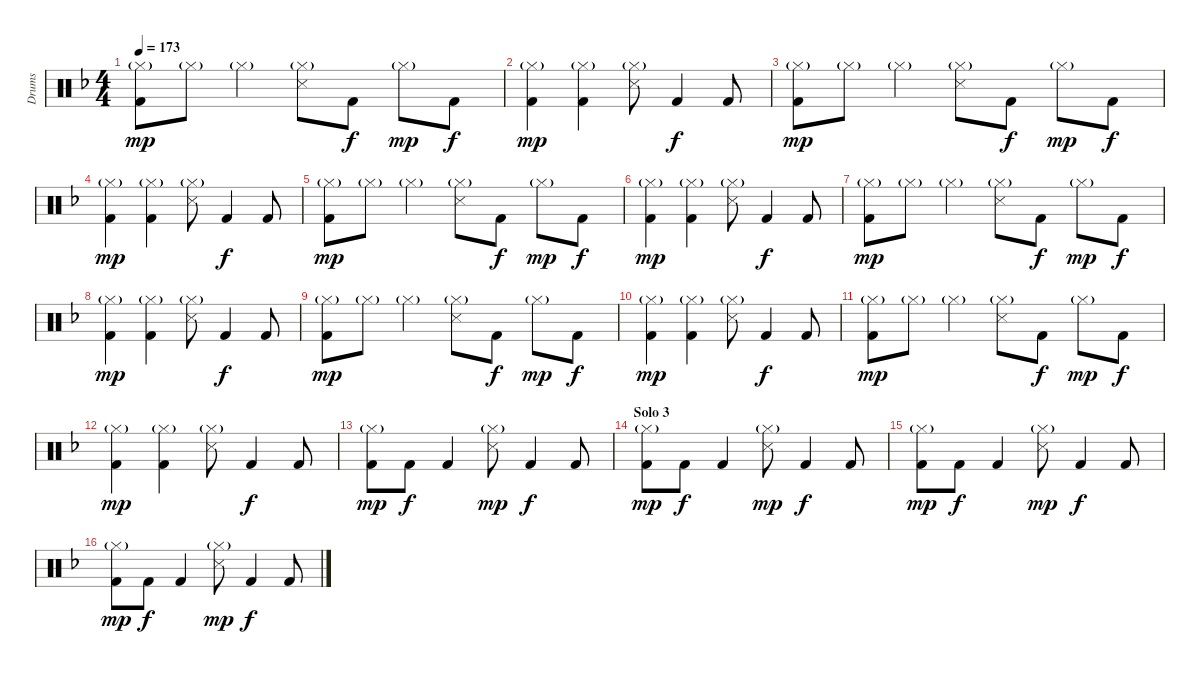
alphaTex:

\track ("Drums" "Drums") {instrument percussion}
\staff {score}
\articulation defaults
\ts (4 4)
\tempo 173
\clef neutral
\ks dminor
("Hi-Hat (closed)"{g} "Kick (hit) 2").8{dy mp} "Hi-Hat (closed)"{g}.8 "Hi-Hat (closed)"{g}.4 ("Hi-Hat (closed)"{g} "Snare (side stick) 3").8 "Kick (hit) 2".8{dy f} "Hi-Hat (closed)"{g}.8{dy mp} "Kick (hit) 2".8{dy f} |
("Hi-Hat (closed)"{g} "Kick (hit) 2").4{dy mp} ("Hi-Hat (closed)"{g} "Kick (hit) 2").4 ("Hi-Hat (closed)"{g} "Snare (side stick) 3").8 "Kick (hit) 2".4{dy f} "Kick (hit) 2".8 |
("Hi-Hat (closed)"{g} "Kick (hit) 2").8{dy mp} "Hi-Hat (closed)"{g}.8 "Hi-Hat (closed)"{g}.4 ("Hi-Hat (closed)"{g} "Snare (side stick) 3").8 "Kick (hit) 2".8{dy f} "Hi-Hat (closed)"{g}.8{dy mp} "Kick (hit) 2".8{dy f} |
("Hi-Hat (closed)"{g} "Kick (hit) 2").4{dy mp} ("Hi-Hat (closed)"{g} "Kick (hit) 2").4 ("Hi-Hat (closed)"{g} "Snare (side stick) 3").8 "Kick (hit) 2".4{dy f} "Kick (hit) 2".8 |
("Hi-Hat (closed)"{g} "Kick (hit) 2").8{dy mp} "Hi-Hat (closed)"{g}.8 "Hi-Hat (closed)"{g}.4 ("Hi-Hat (closed)"{g} "Snare (side stick) 3").8 "Kick (hit) 2".8{dy f} "Hi-Hat (closed)"{g}.8{dy mp} "Kick (hit) 2".8{dy f} |
("Hi-Hat (closed)"{g} "Kick (hit) 2").4{dy mp} ("Hi-Hat (closed)"{g} "Kick (hit) 2").4 ("Hi-Hat (closed)"{g} "Snare (side stick) 3").8 "Kick (hit) 2".4{dy f} "Kick (hit) 2".8 |
("Hi-Hat (closed)"{g} "Kick (hit) 2").8{dy mp} "Hi-Hat (closed)"{g}.8 "Hi-Hat (closed)"{g}.4 ("Hi-Hat (closed)"{g} "Snare (side stick) 3").8 "Kick (hit) 2".8{dy f} "Hi-Hat (closed)"{g}.8{dy mp} "Kick (hit) 2".8{dy f} |
("Hi-Hat (closed)"{g} "Kick (hit) 2").4{dy mp} ("Hi-Hat (closed)"{g} "Kick (hit) 2").4 ("Hi-Hat (closed)"{g} "Snare (side stick) 3").8 "Kick (hit) 2".4{dy f} "Kick (hit) 2".8 |
("Hi-Hat (closed)"{g} "Kick (hit) 2").8{dy mp} "Hi-Hat (closed)"{g}.8 "Hi-Hat (closed)"{g}.4 ("Hi-Hat (closed)"{g} "Snare (side stick) 3").8 "Kick (hit) 2".8{dy f} "Hi-Hat (closed)"{g}.8{dy mp} "Kick (hit) 2".8{dy f} |
("Hi-Hat (closed)"{g} "Kick (hit) 2").4{dy mp} ("Hi-Hat (closed)"{g} "Kick (hit) 2").4 ("Hi-Hat (closed)"{g} "Snare (side stick) 3").8 "Kick (hit) 2".4{dy f} "Kick (hit) 2".8 |
("Hi-Hat (closed)"{g} "Kick (hit) 2").8{dy mp} "Hi-Hat (closed)"{g}.8 "Hi-Hat (closed)"{g}.4 ("Hi-Hat (closed)"{g} "Snare (side stick) 3").8 "Kick (hit) 2".8{dy f} "Hi-Hat (closed)"{g}.8{dy mp} "Kick (hit) 2".8{dy f} |
("Hi-Hat (closed)"{g} "Kick (hit) 2").4{dy mp} ("Hi-Hat (closed)"{g} "Kick (hit) 2").4 ("Hi-Hat (closed)"{g} "Snare (side stick) 3").8 "Kick (hit) 2".4{dy f} "Kick (hit) 2".8 |
("Hi-Hat (closed)"{g} "Kick (hit) 2").8{dy mp} "Kick (hit) 2".8{dy f} "Kick (hit) 2".4 ("Hi-Hat (closed)"{g} "Snare (side stick) 3").8{dy mp} "Kick (hit) 2".4{dy f} "Kick (hit) 2".8 |
\section ("" "Solo 3")
("Hi-Hat (closed)"{g} "Kick (hit) 2").8{dy mp} "Kick (hit) 2".8{dy f} "Kick (hit) 2".4 ("Hi-Hat (closed)"{g} "Snare (side stick) 3").8{dy mp} "Kick (hit) 2".4{dy f} "Kick (hit) 2".8 |
("Hi-Hat (closed)"{g} "Kick (hit) 2").8{dy mp} "Kick (hit) 2".8{dy f} "Kick (hit) 2".4 ("Hi-Hat (closed)"{g} "Snare (side stick) 3").8{dy mp} "Kick (hit) 2".4{dy f} "Kick (hit) 2".8 |
("Hi-Hat (closed)"{g} "Kick (hit) 2").8{dy mp} "Kick (hit) 2".8{dy f} "Kick (hit) 2".4 ("Hi-Hat (closed)"{g} "Snare (side stick) 3").8{dy mp} "Kick (hit) 2".4{dy f} "Kick (hit) 2".8
